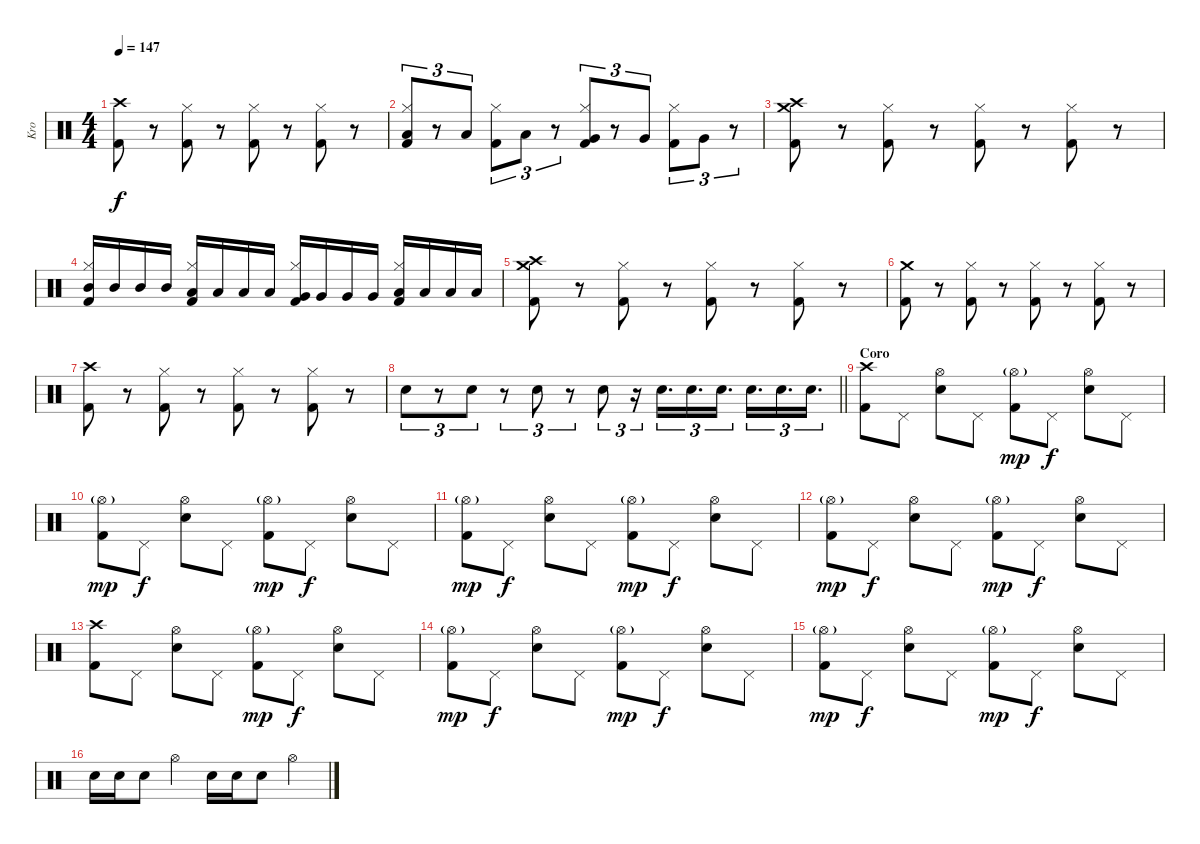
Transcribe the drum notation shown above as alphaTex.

\track ("Kro" "Kro") {instrument percussion}
\staff {score}
\articulation defaults
\ts (4 4)
\tempo 147
\clef neutral
\ks c
("Crash high (hit)" "Kick (hit) 2").8{dy f} r.8 ("Hi-Hat (closed)" "Kick (hit) 2").8 r.8 ("Hi-Hat (closed)" "Kick (hit) 2").8 r.8 ("Hi-Hat (closed)" "Kick (hit) 2").8 r.8 |
("Hi-Hat (closed)" "Low Tom (hit)" "Kick (hit) 2").8{tu (3 2)} r.8{tu (3 2)} "Low Tom (hit)".8{tu (3 2)} ("Hi-Hat (closed)" "Kick (hit) 2").8{tu (3 2)} "Low Tom (hit)".8{tu (3 2)} r.8{tu (3 2)} ("Hi-Hat (closed)" "Very Low Tom (hit)" "Kick (hit) 2").8{tu (3 2)} r.8{tu (3 2)} "Very Low Tom (hit)".8{tu (3 2)} ("Hi-Hat (closed)" "Kick (hit) 2").8{tu (3 2)} "Very Low Tom (hit)".8{tu (3 2)} r.8{tu (3 2)} |
("Crash medium (hit)" "Crash high (hit)" "Kick (hit) 2").8 r.8 ("Hi-Hat (closed)" "Kick (hit) 2").8 r.8 ("Hi-Hat (closed)" "Kick (hit) 2").8 r.8 ("Hi-Hat (closed)" "Kick (hit) 2").8 r.8 |
("Hi-Hat (closed)" "Mid Tom (hit)" "Kick (hit) 2").16 "Mid Tom (hit)".16 "Mid Tom (hit)".16 "Mid Tom (hit)".16 ("Hi-Hat (closed)" "Low Tom (hit)" "Kick (hit) 2").16 "Low Tom (hit)".16 "Low Tom (hit)".16 "Low Tom (hit)".16 ("Hi-Hat (closed)" "Very Low Tom (hit)" "Kick (hit) 2").16 "Very Low Tom (hit)".16 "Very Low Tom (hit)".16 "Very Low Tom (hit)".16 ("Hi-Hat (closed)" "Low Floor Tom (hit)" "Kick (hit) 2").16 "Low Floor Tom (hit)".16 "Low Floor Tom (hit)".16 "Low Floor Tom (hit)".16 |
("Crash high (hit)" "Crash medium (hit)" "Kick (hit) 2").8 r.8 ("Hi-Hat (closed)" "Kick (hit) 2").8 r.8 ("Hi-Hat (closed)" "Kick (hit) 2").8 r.8 ("Hi-Hat (closed)" "Kick (hit) 2").8 r.8 |
("Crash medium (hit)" "Kick (hit) 2").8 r.8 ("Hi-Hat (closed)" "Kick (hit) 2").8 r.8 ("Hi-Hat (closed)" "Kick (hit) 2").8 r.8 ("Hi-Hat (closed)" "Kick (hit) 2").8 r.8 |
("Crash high (hit)" "Kick (hit) 2").8 r.8 ("Hi-Hat (closed)" "Kick (hit) 2").8 r.8 ("Hi-Hat (closed)" "Kick (hit) 2").8 r.8 ("Hi-Hat (closed)" "Kick (hit) 2").8 r.8 |
\barLineRight lightlight "Electric Snare (hit)".8{tu (3 2)}
r.8{tu (3 2)} "Electric Snare (hit)".8{tu (3 2)} r.8{tu (3 2)} "Electric Snare (hit)".8{tu (3 2)} r.8{tu (3 2)} "Electric Snare (hit)".8{tu (3 2)} r.16{tu (3 2)} "Electric Snare (hit)".16{d tu (3 2)} "Electric Snare (hit)".16{d tu (3 2)} "Electric Snare (hit)".16{d tu (3 2)} "Electric Snare (hit)".16{d tu (3 2)} "Electric Snare (hit)".16{d tu (3 2)} "Electric Snare (hit)".16{d tu (3 2)} |
\section ("" "Coro")
("Crash high (hit)" "Kick (hit) 2").8 "Pedal Hi-Hat (hit)".8 ("Hi-Hat (open)" "Electric Snare (hit)").8 "Pedal Hi-Hat (hit)".8 ("Hi-Hat (open)"{g} "Kick (hit) 2").8{dy mp} "Pedal Hi-Hat (hit)".8{dy f} ("Hi-Hat (open)" "Electric Snare (hit)").8 "Pedal Hi-Hat (hit)".8 |
("Hi-Hat (open)"{g} "Kick (hit) 2").8{dy mp} "Pedal Hi-Hat (hit)".8{dy f} ("Hi-Hat (open)" "Electric Snare (hit)").8 "Pedal Hi-Hat (hit)".8 ("Hi-Hat (open)"{g} "Kick (hit) 2").8{dy mp} "Pedal Hi-Hat (hit)".8{dy f} ("Hi-Hat (open)" "Electric Snare (hit)").8 "Pedal Hi-Hat (hit)".8 |
("Hi-Hat (open)"{g} "Kick (hit) 2").8{dy mp} "Pedal Hi-Hat (hit)".8{dy f} ("Hi-Hat (open)" "Electric Snare (hit)").8 "Pedal Hi-Hat (hit)".8 ("Hi-Hat (open)"{g} "Kick (hit) 2").8{dy mp} "Pedal Hi-Hat (hit)".8{dy f} ("Hi-Hat (open)" "Electric Snare (hit)").8 "Pedal Hi-Hat (hit)".8 |
("Hi-Hat (open)"{g} "Kick (hit) 2").8{dy mp} "Pedal Hi-Hat (hit)".8{dy f} ("Hi-Hat (open)" "Electric Snare (hit)").8 "Pedal Hi-Hat (hit)".8 ("Hi-Hat (open)"{g} "Kick (hit) 2").8{dy mp} "Pedal Hi-Hat (hit)".8{dy f} ("Hi-Hat (open)" "Electric Snare (hit)").8 "Pedal Hi-Hat (hit)".8 |
("Crash high (hit)" "Kick (hit) 2").8 "Pedal Hi-Hat (hit)".8 ("Hi-Hat (open)" "Electric Snare (hit)").8 "Pedal Hi-Hat (hit)".8 ("Hi-Hat (open)"{g} "Kick (hit) 2").8{dy mp} "Pedal Hi-Hat (hit)".8{dy f} ("Hi-Hat (open)" "Electric Snare (hit)").8 "Pedal Hi-Hat (hit)".8 |
("Hi-Hat (open)"{g} "Kick (hit) 2").8{dy mp} "Pedal Hi-Hat (hit)".8{dy f} ("Hi-Hat (open)" "Electric Snare (hit)").8 "Pedal Hi-Hat (hit)".8 ("Hi-Hat (open)"{g} "Kick (hit) 2").8{dy mp} "Pedal Hi-Hat (hit)".8{dy f} ("Hi-Hat (open)" "Electric Snare (hit)").8 "Pedal Hi-Hat (hit)".8 |
("Hi-Hat (open)"{g} "Kick (hit) 2").8{dy mp} "Pedal Hi-Hat (hit)".8{dy f} ("Hi-Hat (open)" "Electric Snare (hit)").8 "Pedal Hi-Hat (hit)".8 ("Hi-Hat (open)"{g} "Kick (hit) 2").8{dy mp} "Pedal Hi-Hat (hit)".8{dy f} ("Hi-Hat (open)" "Electric Snare (hit)").8 "Pedal Hi-Hat (hit)".8 |
"Electric Snare (hit)".16 "Electric Snare (hit)".16 "Electric Snare (hit)".8 "Hi-Hat (open)".4 "Electric Snare (hit)".16 "Electric Snare (hit)".16 "Electric Snare (hit)".8 "Hi-Hat (open)".4
